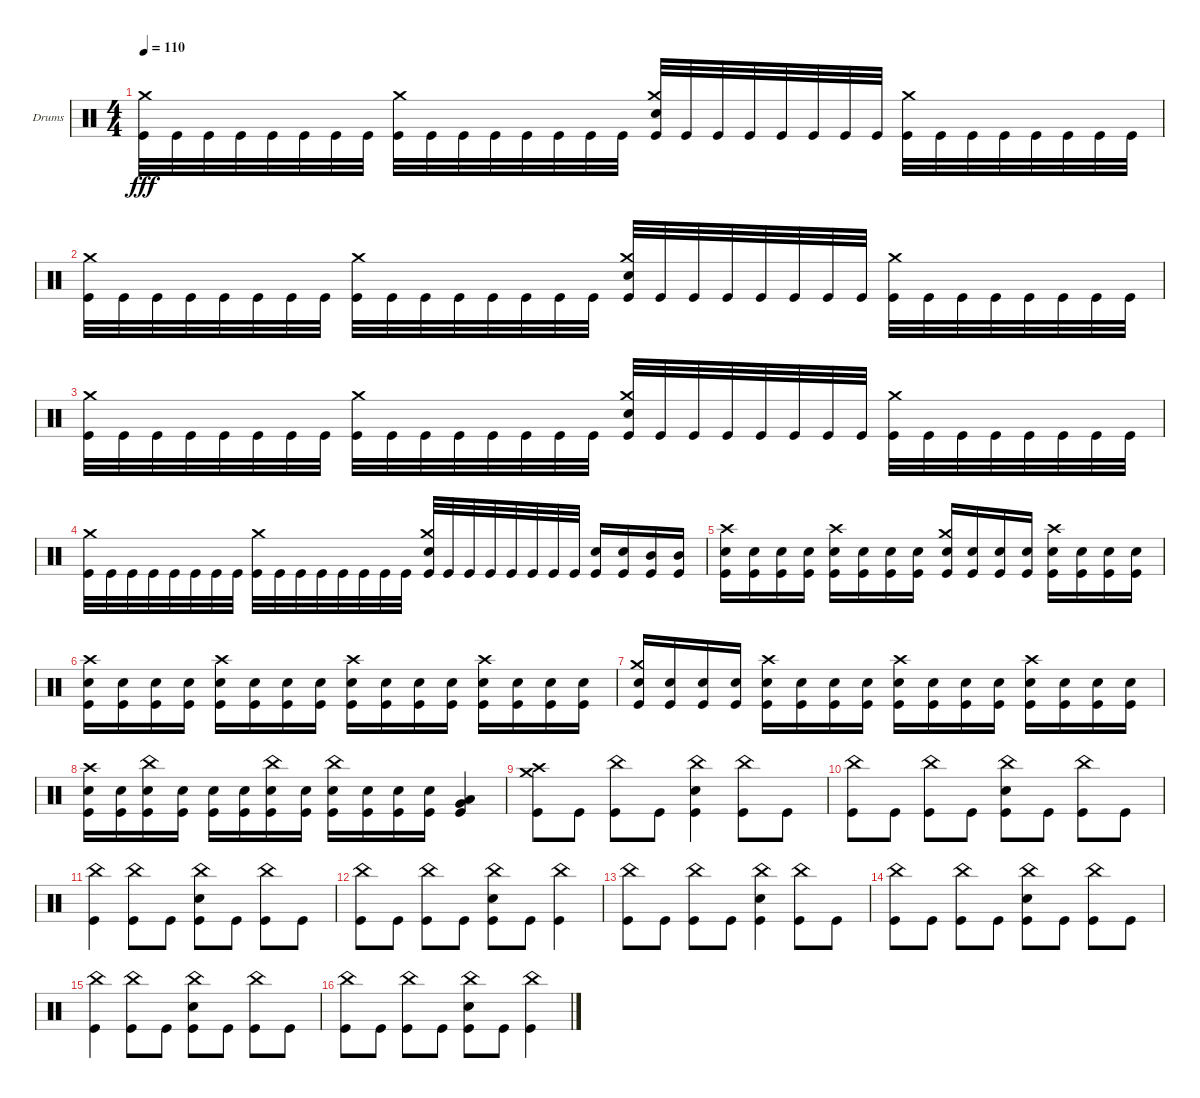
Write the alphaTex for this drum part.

\bracketExtendMode groupsimilarinstruments
\firstSystemTrackNameOrientation horizontal
\otherSystemsTrackNameOrientation horizontal
\track ("Drumkit" "Drums") {instrument percussion}
\staff {score}
\articulation defaults
\ts (4 4)
\tempo 110
\clef neutral
\ks c
("Kick (hit)" "Crash medium (hit)").32{dy fff} "Kick (hit)".32 "Kick (hit)".32 "Kick (hit)".32 "Kick (hit)".32 "Kick (hit)".32 "Kick (hit)".32 "Kick (hit)".32 ("Kick (hit)" "Crash medium (hit)").32 "Kick (hit)".32 "Kick (hit)".32 "Kick (hit)".32 "Kick (hit)".32 "Kick (hit)".32 "Kick (hit)".32 "Kick (hit)".32 ("Kick (hit)" "Crash medium (hit)" "Snare (hit) 2").32 "Kick (hit)".32 "Kick (hit)".32 "Kick (hit)".32 "Kick (hit)".32 "Kick (hit)".32 "Kick (hit)".32 "Kick (hit)".32 ("Kick (hit)" "Crash medium (hit)").32 "Kick (hit)".32 "Kick (hit)".32 "Kick (hit)".32 "Kick (hit)".32 "Kick (hit)".32 "Kick (hit)".32 "Kick (hit)".32 |
("Kick (hit)" "Crash medium (hit)").32 "Kick (hit)".32 "Kick (hit)".32 "Kick (hit)".32 "Kick (hit)".32 "Kick (hit)".32 "Kick (hit)".32 "Kick (hit)".32 ("Kick (hit)" "Crash medium (hit)").32 "Kick (hit)".32 "Kick (hit)".32 "Kick (hit)".32 "Kick (hit)".32 "Kick (hit)".32 "Kick (hit)".32 "Kick (hit)".32 ("Kick (hit)" "Crash medium (hit)" "Snare (hit) 2").32 "Kick (hit)".32 "Kick (hit)".32 "Kick (hit)".32 "Kick (hit)".32 "Kick (hit)".32 "Kick (hit)".32 "Kick (hit)".32 ("Kick (hit)" "Crash medium (hit)").32 "Kick (hit)".32 "Kick (hit)".32 "Kick (hit)".32 "Kick (hit)".32 "Kick (hit)".32 "Kick (hit)".32 "Kick (hit)".32 |
("Kick (hit)" "Crash medium (hit)").32 "Kick (hit)".32 "Kick (hit)".32 "Kick (hit)".32 "Kick (hit)".32 "Kick (hit)".32 "Kick (hit)".32 "Kick (hit)".32 ("Kick (hit)" "Crash medium (hit)").32 "Kick (hit)".32 "Kick (hit)".32 "Kick (hit)".32 "Kick (hit)".32 "Kick (hit)".32 "Kick (hit)".32 "Kick (hit)".32 ("Kick (hit)" "Crash medium (hit)" "Snare (hit) 2").32 "Kick (hit)".32 "Kick (hit)".32 "Kick (hit)".32 "Kick (hit)".32 "Kick (hit)".32 "Kick (hit)".32 "Kick (hit)".32 ("Kick (hit)" "Crash medium (hit)").32 "Kick (hit)".32 "Kick (hit)".32 "Kick (hit)".32 "Kick (hit)".32 "Kick (hit)".32 "Kick (hit)".32 "Kick (hit)".32 |
("Kick (hit)" "Crash medium (hit)").32 "Kick (hit)".32 "Kick (hit)".32 "Kick (hit)".32 "Kick (hit)".32 "Kick (hit)".32 "Kick (hit)".32 "Kick (hit)".32 ("Kick (hit)" "Crash medium (hit)").32 "Kick (hit)".32 "Kick (hit)".32 "Kick (hit)".32 "Kick (hit)".32 "Kick (hit)".32 "Kick (hit)".32 "Kick (hit)".32 ("Kick (hit)" "Crash medium (hit)" "Snare (hit) 2").32 "Kick (hit)".32 "Kick (hit)".32 "Kick (hit)".32 "Kick (hit)".32 "Kick (hit)".32 "Kick (hit)".32 "Kick (hit)".32 ("Kick (hit)" "Snare (hit) 2").16 ("Kick (hit)" "Snare (hit) 2").16 ("Kick (hit)" "Mid Tom (hit)").16 ("Kick (hit)" "Mid Tom (hit)").16 |
("Kick (hit)" "Snare (hit) 2" "Crash high (hit)").16 ("Kick (hit)" "Snare (hit) 2").16 ("Kick (hit)" "Snare (hit) 2").16 ("Kick (hit)" "Snare (hit) 2").16 ("Kick (hit)" "Snare (hit) 2" "Crash high (hit)").16 ("Kick (hit)" "Snare (hit) 2").16 ("Kick (hit)" "Snare (hit) 2").16 ("Kick (hit)" "Snare (hit) 2").16 ("Kick (hit)" "Snare (hit) 2" "Crash medium (hit)").16 ("Kick (hit)" "Snare (hit) 2").16 ("Kick (hit)" "Snare (hit) 2").16 ("Kick (hit)" "Snare (hit) 2").16 ("Kick (hit)" "Snare (hit) 2" "Crash high (hit)").16 ("Kick (hit)" "Snare (hit) 2").16 ("Kick (hit)" "Snare (hit) 2").16 ("Kick (hit)" "Snare (hit) 2").16 |
("Kick (hit)" "Snare (hit) 2" "Crash high (hit)").16 ("Kick (hit)" "Snare (hit) 2").16 ("Kick (hit)" "Snare (hit) 2").16 ("Kick (hit)" "Snare (hit) 2").16 ("Kick (hit)" "Snare (hit) 2" "Crash high (hit)").16 ("Kick (hit)" "Snare (hit) 2").16 ("Kick (hit)" "Snare (hit) 2").16 ("Kick (hit)" "Snare (hit) 2").16 ("Kick (hit)" "Snare (hit) 2" "Crash high (hit)").16 ("Kick (hit)" "Snare (hit) 2").16 ("Kick (hit)" "Snare (hit) 2").16 ("Kick (hit)" "Snare (hit) 2").16 ("Kick (hit)" "Snare (hit) 2" "Crash high (hit)").16 ("Kick (hit)" "Snare (hit) 2").16 ("Kick (hit)" "Snare (hit) 2").16 ("Kick (hit)" "Snare (hit) 2").16 |
("Kick (hit)" "Snare (hit) 2" "Crash medium (hit)").16 ("Kick (hit)" "Snare (hit) 2").16 ("Kick (hit)" "Snare (hit) 2").16 ("Kick (hit)" "Snare (hit) 2").16 ("Kick (hit)" "Snare (hit) 2" "Crash high (hit)").16 ("Kick (hit)" "Snare (hit) 2").16 ("Kick (hit)" "Snare (hit) 2").16 ("Kick (hit)" "Snare (hit) 2").16 ("Kick (hit)" "Snare (hit) 2" "Crash high (hit)").16 ("Kick (hit)" "Snare (hit) 2").16 ("Kick (hit)" "Snare (hit) 2").16 ("Kick (hit)" "Snare (hit) 2").16 ("Kick (hit)" "Snare (hit) 2" "Crash high (hit)").16 ("Kick (hit)" "Snare (hit) 2").16 ("Kick (hit)" "Snare (hit) 2").16 ("Kick (hit)" "Snare (hit) 2").16 |
("Kick (hit)" "Snare (hit) 2" "Crash high (hit)").16 ("Kick (hit)" "Snare (hit) 2").16 ("Kick (hit)" "Snare (hit) 2" "China (hit)").16 ("Kick (hit)" "Snare (hit) 2").16 ("Kick (hit)" "Snare (hit) 2").16 ("Kick (hit)" "Snare (hit) 2").16 ("Kick (hit)" "Snare (hit) 2" "China (hit)").16 ("Kick (hit)" "Snare (hit) 2").16 ("Kick (hit)" "Snare (hit) 2" "China (hit)").16 ("Kick (hit)" "Snare (hit) 2").16 ("Kick (hit)" "Snare (hit) 2").16 ("Kick (hit)" "Snare (hit) 2").16 ("Kick (hit)" "Very Low Tom (hit)" "Low Tom (hit)").4 |
("Kick (hit)" "Crash high (hit)" "Crash medium (hit)").8 "Kick (hit)".8 ("Kick (hit)" "China (hit)").8 "Kick (hit)".8 ("Kick (hit)" "China (hit)" "Snare (hit) 2").4 ("Kick (hit)" "China (hit)").8 "Kick (hit)".8 |
("Kick (hit)" "China (hit)").8 "Kick (hit)".8 ("Kick (hit)" "China (hit)").8 "Kick (hit)".8 ("Kick (hit)" "China (hit)" "Snare (hit) 2").8 "Kick (hit)".8 ("Kick (hit)" "China (hit)").8 "Kick (hit)".8 |
("Kick (hit)" "China (hit)").4 ("Kick (hit)" "China (hit)").8 "Kick (hit)".8 ("Kick (hit)" "China (hit)" "Snare (hit) 2").8 "Kick (hit)".8 ("Kick (hit)" "China (hit)").8 "Kick (hit)".8 |
("Kick (hit)" "China (hit)").8 "Kick (hit)".8 ("Kick (hit)" "China (hit)").8 "Kick (hit)".8 ("Kick (hit)" "China (hit)" "Snare (hit) 2").8 "Kick (hit)".8 ("Kick (hit)" "China (hit)").4 |
("Kick (hit)" "China (hit)").8 "Kick (hit)".8 ("Kick (hit)" "China (hit)").8 "Kick (hit)".8 ("Kick (hit)" "China (hit)" "Snare (hit) 2").4 ("Kick (hit)" "China (hit)").8 "Kick (hit)".8 |
("Kick (hit)" "China (hit)").8 "Kick (hit)".8 ("Kick (hit)" "China (hit)").8 "Kick (hit)".8 ("Kick (hit)" "China (hit)" "Snare (hit) 2").8 "Kick (hit)".8 ("Kick (hit)" "China (hit)").8 "Kick (hit)".8 |
("Kick (hit)" "China (hit)").4 ("Kick (hit)" "China (hit)").8 "Kick (hit)".8 ("Kick (hit)" "China (hit)" "Snare (hit) 2").8 "Kick (hit)".8 ("Kick (hit)" "China (hit)").8 "Kick (hit)".8 |
("Kick (hit)" "China (hit)").8 "Kick (hit)".8 ("Kick (hit)" "China (hit)").8 "Kick (hit)".8 ("Kick (hit)" "China (hit)" "Snare (hit) 2").8 "Kick (hit)".8 ("Kick (hit)" "China (hit)").4
